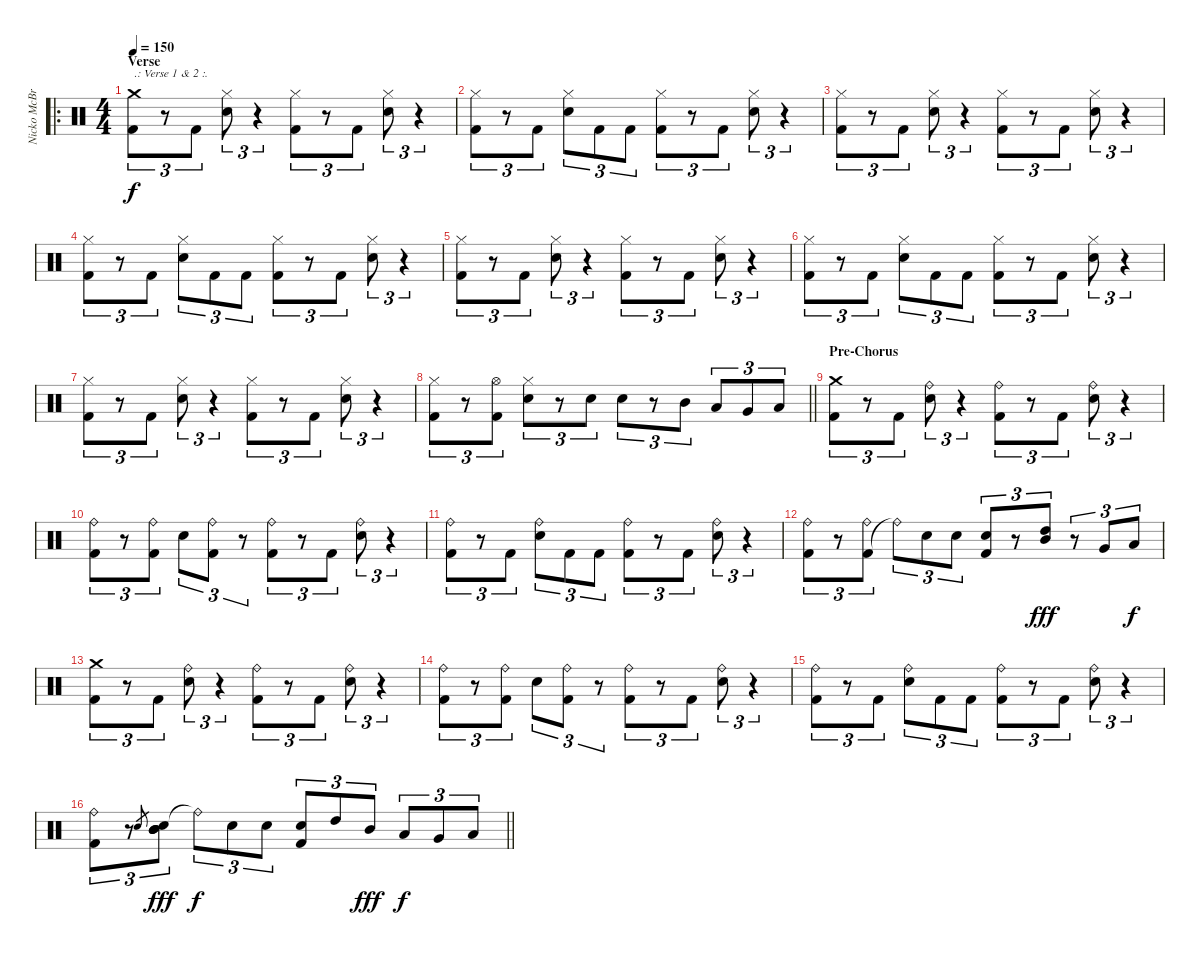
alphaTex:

\track ("Nicko McBrain" "Nicko McBr") {instrument percussion}
\staff {score}
\articulation defaults
\ro
\ts (4 4)
\section ("" "Verse")
\tempo 150
\clef neutral
\ks c
("Crash medium (hit)" "Kick (hit) 2").8{tu (3 2) txt ".: Verse 1 & 2 :." dy f} r.8{tu (3 2)} "Kick (hit) 2".8{tu (3 2)} ("Hi-Hat (closed)" "Electric Snare (hit)").8{tu (3 2)} r.4{tu (3 2)} ("Kick (hit) 2" "Hi-Hat (closed)").8{tu (3 2)} r.8{tu (3 2)} "Kick (hit) 2".8{tu (3 2)} ("Hi-Hat (closed)" "Electric Snare (hit)").8{tu (3 2)} r.4{tu (3 2)} |
("Hi-Hat (closed)" "Kick (hit) 2").8{tu (3 2)} r.8{tu (3 2)} "Kick (hit) 2".8{tu (3 2)} ("Hi-Hat (closed)" "Electric Snare (hit)").8{tu (3 2)} "Kick (hit) 2".8{tu (3 2)} "Kick (hit) 2".8{tu (3 2)} ("Kick (hit) 2" "Hi-Hat (closed)").8{tu (3 2)} r.8{tu (3 2)} "Kick (hit) 2".8{tu (3 2)} ("Hi-Hat (closed)" "Electric Snare (hit)").8{tu (3 2)} r.4{tu (3 2)} |
("Hi-Hat (closed)" "Kick (hit) 2").8{tu (3 2)} r.8{tu (3 2)} "Kick (hit) 2".8{tu (3 2)} ("Hi-Hat (closed)" "Electric Snare (hit)").8{tu (3 2)} r.4{tu (3 2)} ("Kick (hit) 2" "Hi-Hat (closed)").8{tu (3 2)} r.8{tu (3 2)} "Kick (hit) 2".8{tu (3 2)} ("Hi-Hat (closed)" "Electric Snare (hit)").8{tu (3 2)} r.4{tu (3 2)} |
("Hi-Hat (closed)" "Kick (hit) 2").8{tu (3 2)} r.8{tu (3 2)} "Kick (hit) 2".8{tu (3 2)} ("Hi-Hat (closed)" "Electric Snare (hit)").8{tu (3 2)} "Kick (hit) 2".8{tu (3 2)} "Kick (hit) 2".8{tu (3 2)} ("Kick (hit) 2" "Hi-Hat (closed)").8{tu (3 2)} r.8{tu (3 2)} "Kick (hit) 2".8{tu (3 2)} ("Hi-Hat (closed)" "Electric Snare (hit)").8{tu (3 2)} r.4{tu (3 2)} |
("Hi-Hat (closed)" "Kick (hit) 2").8{tu (3 2)} r.8{tu (3 2)} "Kick (hit) 2".8{tu (3 2)} ("Hi-Hat (closed)" "Electric Snare (hit)").8{tu (3 2)} r.4{tu (3 2)} ("Kick (hit) 2" "Hi-Hat (closed)").8{tu (3 2)} r.8{tu (3 2)} "Kick (hit) 2".8{tu (3 2)} ("Hi-Hat (closed)" "Electric Snare (hit)").8{tu (3 2)} r.4{tu (3 2)} |
("Hi-Hat (closed)" "Kick (hit) 2").8{tu (3 2)} r.8{tu (3 2)} "Kick (hit) 2".8{tu (3 2)} ("Hi-Hat (closed)" "Electric Snare (hit)").8{tu (3 2)} "Kick (hit) 2".8{tu (3 2)} "Kick (hit) 2".8{tu (3 2)} ("Kick (hit) 2" "Hi-Hat (closed)").8{tu (3 2)} r.8{tu (3 2)} "Kick (hit) 2".8{tu (3 2)} ("Hi-Hat (closed)" "Electric Snare (hit)").8{tu (3 2)} r.4{tu (3 2)} |
("Hi-Hat (closed)" "Kick (hit) 2").8{tu (3 2)} r.8{tu (3 2)} "Kick (hit) 2".8{tu (3 2)} ("Hi-Hat (closed)" "Electric Snare (hit)").8{tu (3 2)} r.4{tu (3 2)} ("Kick (hit) 2" "Hi-Hat (closed)").8{tu (3 2)} r.8{tu (3 2)} "Kick (hit) 2".8{tu (3 2)} ("Hi-Hat (closed)" "Electric Snare (hit)").8{tu (3 2)} r.4{tu (3 2)} |
\barLineRight lightlight
("Hi-Hat (closed)" "Kick (hit) 2").8{tu (3 2)} r.8{tu (3 2)} ("Kick (hit) 2" "Hi-Hat (open)").8{tu (3 2)} ("Hi-Hat (closed)" "Electric Snare (hit)").8{tu (3 2)} r.8{tu (3 2)} "Electric Snare (hit)".8{tu (3 2)} "Electric Snare (hit)".8{tu (3 2)} r.8{tu (3 2)} "Mid Tom (hit)".8{tu (3 2)} "Low Tom (hit)".8{tu (3 2)} "Very Low Tom (hit)".8{tu (3 2)} "Low Floor Tom (hit)".8{tu (3 2)} |
\section ("" "Pre-Chorus")
("Crash medium (hit)" "Kick (hit) 2").8{tu (3 2)} r.8{tu (3 2)} "Kick (hit) 2".8{tu (3 2)} ("Ride (bell)" "Electric Snare (hit)").8{tu (3 2)} r.4{tu (3 2)} ("Kick (hit) 2" "Ride (bell)").8{tu (3 2)} r.8{tu (3 2)} "Kick (hit) 2".8{tu (3 2)} ("Ride (bell)" "Electric Snare (hit)").8{tu (3 2)} r.4{tu (3 2)} |
("Ride (bell)" "Kick (hit) 2").8{tu (3 2)} r.8{tu (3 2)} ("Kick (hit) 2" "Ride (bell)").8{tu (3 2)} "Electric Snare (hit)".8{tu (3 2)} ("Ride (bell)" "Kick (hit) 2").8{tu (3 2)} r.8{tu (3 2)} ("Kick (hit) 2" "Ride (bell)").8{tu (3 2)} r.8{tu (3 2)} "Kick (hit) 2".8{tu (3 2)} ("Ride (bell)" "Electric Snare (hit)").8{tu (3 2)} r.4{tu (3 2)} |
("Ride (bell)" "Kick (hit) 2").8{tu (3 2)} r.8{tu (3 2)} "Kick (hit) 2".8{tu (3 2)} ("Ride (bell)" "Electric Snare (hit)").8{tu (3 2)} "Kick (hit) 2".8{tu (3 2)} "Kick (hit) 2".8{tu (3 2)} ("Kick (hit) 2" "Ride (bell)").8{tu (3 2)} r.8{tu (3 2)} "Kick (hit) 2".8{tu (3 2)} ("Ride (bell)" "Electric Snare (hit)").8{tu (3 2)} r.4{tu (3 2)} |
("Ride (bell)" "Kick (hit) 2").8{tu (3 2)} r.8{tu (3 2)} ("Kick (hit) 2" "Ride (bell)").8{tu (3 2)} "Ride (bell)"{t}.8{tu (3 2)} "Electric Snare (hit)".8{tu (3 2)} "Electric Snare (hit)".8{tu (3 2)} ("Kick (hit) 2" "Electric Snare (hit)").8{tu (3 2)} r.8{tu (3 2)} ("High Tom (hit)" "Mid Tom (hit)").8{tu (3 2) dy fff} r.8{tu (3 2)} "Very Low Tom (hit)".8{tu (3 2)} "Low Floor Tom (hit)".8{tu (3 2) dy f} |
("Crash medium (hit)" "Kick (hit) 2").8{tu (3 2)} r.8{tu (3 2)} "Kick (hit) 2".8{tu (3 2)} ("Ride (bell)" "Electric Snare (hit)").8{tu (3 2)} r.4{tu (3 2)} ("Kick (hit) 2" "Ride (bell)").8{tu (3 2)} r.8{tu (3 2)} "Kick (hit) 2".8{tu (3 2)} ("Ride (bell)" "Electric Snare (hit)").8{tu (3 2)} r.4{tu (3 2)} |
("Ride (bell)" "Kick (hit) 2").8{tu (3 2)} r.8{tu (3 2)} ("Kick (hit) 2" "Ride (bell)").8{tu (3 2)} "Electric Snare (hit)".8{tu (3 2)} ("Ride (bell)" "Kick (hit) 2").8{tu (3 2)} r.8{tu (3 2)} ("Kick (hit) 2" "Ride (bell)").8{tu (3 2)} r.8{tu (3 2)} "Kick (hit) 2".8{tu (3 2)} ("Ride (bell)" "Electric Snare (hit)").8{tu (3 2)} r.4{tu (3 2)} |
("Ride (bell)" "Kick (hit) 2").8{tu (3 2)} r.8{tu (3 2)} "Kick (hit) 2".8{tu (3 2)} ("Ride (bell)" "Electric Snare (hit)").8{tu (3 2)} "Kick (hit) 2".8{tu (3 2)} "Kick (hit) 2".8{tu (3 2)} ("Kick (hit) 2" "Ride (bell)").8{tu (3 2)} r.8{tu (3 2)} "Kick (hit) 2".8{tu (3 2)} ("Ride (bell)" "Electric Snare (hit)").8{tu (3 2)} r.4{tu (3 2)} |
\barLineRight lightlight
("Ride (bell)" "Kick (hit) 2").8{tu (3 2)} r.8{tu (3 2)} "Electric Snare (hit)".8{gr} ("Electric Snare (hit)" "Mid Tom (hit)" "Mid Tom (hit)" "Mid Tom (hit)").8{tu (3 2) dy fff} "Ride (bell)"{t}.8{tu (3 2) dy f} "Electric Snare (hit)".8{tu (3 2)} "Electric Snare (hit)".8{tu (3 2)} ("Kick (hit) 2" "Electric Snare (hit)").8{tu (3 2)} "High Tom (hit)".8{tu (3 2)} "Mid Tom (hit)".8{tu (3 2) dy fff} "Low Tom (hit)".8{tu (3 2) dy f} "Very Low Tom (hit)".8{tu (3 2)} "Low Floor Tom (hit)".8{tu (3 2)}
